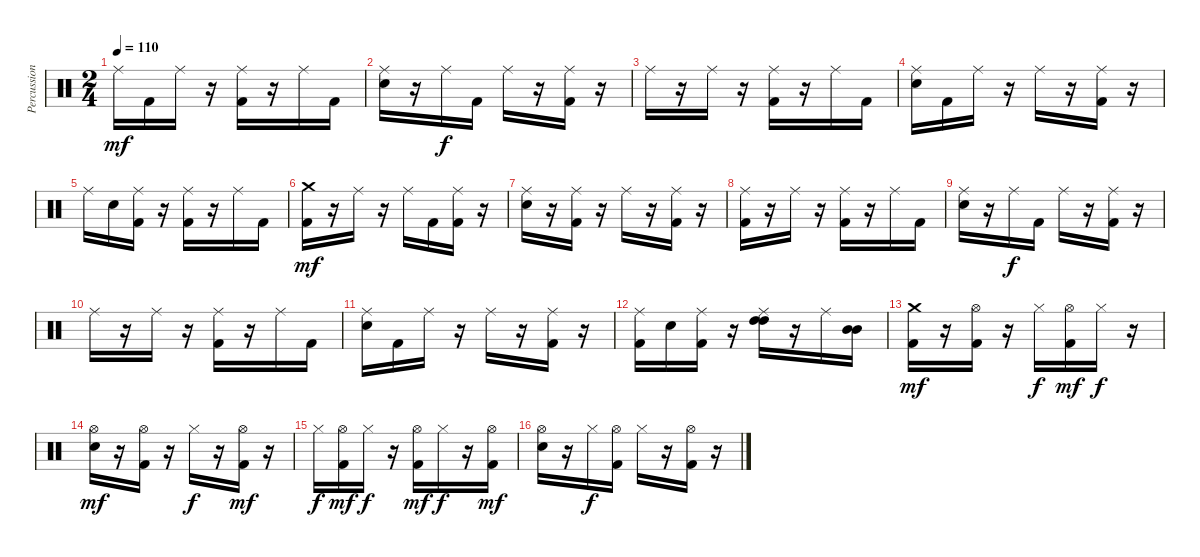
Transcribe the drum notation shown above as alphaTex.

\track ("Percussion" "Percussion") {instrument percussion}
\staff {score}
\articulation defaults
\ts (2 4)
\tempo 110
\clef neutral
\ks c "Ride (middle)".16{dy mf} "Kick (hit) 2".16 "Ride (middle)".16
r.16 ("Ride (middle)" "Kick (hit) 2").16 r.16 "Ride (middle)".16 "Kick (hit) 2".16 |
("Ride (middle)" "Snare (hit) 2").16 r.16 "Ride (middle)".16{dy f} "Kick (hit) 2".16 "Ride (middle)".16 r.16 ("Ride (middle)" "Kick (hit) 2").16 r.16 |
"Ride (middle)".16 r.16 "Ride (middle)".16 r.16 ("Ride (middle)" "Kick (hit) 2").16 r.16 "Ride (middle)".16 "Kick (hit) 2".16 |
("Ride (middle)" "Snare (hit) 2").16 "Kick (hit) 2".16 "Ride (middle)".16 r.16 "Ride (middle)".16 r.16 ("Ride (middle)" "Kick (hit) 2").16 r.16 |
"Ride (middle)".16 "Snare (hit) 2".16 ("Ride (middle)" "Kick (hit) 2").16 r.16 ("Ride (middle)" "Kick (hit) 2").16 r.16 "Ride (middle)".16 "Kick (hit) 2".16 |
("Crash medium (hit)" "Kick (hit) 2").16{dy mf} r.16 "Ride (middle)".16 r.16 "Ride (middle)".16 "Kick (hit) 2".16 ("Ride (middle)" "Kick (hit) 2").16 r.16 |
("Ride (middle)" "Snare (hit) 2").16 r.16 ("Ride (middle)" "Kick (hit) 2").16 r.16 "Ride (middle)".16 r.16 ("Ride (middle)" "Kick (hit) 2").16 r.16 |
("Ride (middle)" "Kick (hit) 2").16 r.16 "Ride (middle)".16 r.16 ("Ride (middle)" "Kick (hit) 2").16 r.16 "Ride (middle)".16 "Kick (hit) 2".16 |
("Ride (middle)" "Snare (hit) 2").16 r.16 "Ride (middle)".16{dy f} "Kick (hit) 2".16 "Ride (middle)".16 r.16 ("Ride (middle)" "Kick (hit) 2").16 r.16 |
"Ride (middle)".16 r.16 "Ride (middle)".16 r.16 ("Ride (middle)" "Kick (hit) 2").16 r.16 "Ride (middle)".16 "Kick (hit) 2".16 |
("Ride (middle)" "Snare (hit) 2").16 "Kick (hit) 2".16 "Ride (middle)".16 r.16 "Ride (middle)".16 r.16 ("Ride (middle)" "Kick (hit) 2").16 r.16 |
("Ride (middle)" "Kick (hit) 2").16 "Snare (hit) 2".16 ("Ride (middle)" "Kick (hit) 2").16 r.16 ("Ride (middle)" "High Tom (hit)" "High Tom (hit)").16 r.16 "Ride (middle)".16 ("Mid Tom (hit)" "Mid Tom (hit)").16 |
("Crash medium (hit)" "Kick (hit) 2").16{dy mf} r.16 ("Hi-Hat (open)" "Kick (hit) 2").16 r.16 "Hi-Hat (closed)".16{dy f} ("Hi-Hat (open)" "Kick (hit) 2").16{dy mf} "Hi-Hat (closed)".16{dy f} r.16 |
("Hi-Hat (open)" "Snare (hit) 2").16{dy mf} r.16 ("Hi-Hat (open)" "Kick (hit) 2").16 r.16 "Hi-Hat (closed)".16{dy f} r.16 ("Hi-Hat (open)" "Kick (hit) 2").16{dy mf} r.16 |
"Hi-Hat (closed)".16{dy f} ("Hi-Hat (open)" "Kick (hit) 2").16{dy mf} "Hi-Hat (closed)".16{dy f} r.16 ("Hi-Hat (open)" "Kick (hit) 2").16{dy mf} "Hi-Hat (closed)".16{dy f} r.16 ("Hi-Hat (open)" "Kick (hit) 2").16{dy mf} |
("Hi-Hat (open)" "Snare (hit) 2").16 r.16 "Hi-Hat (closed)".16{dy f} ("Hi-Hat (open)" "Kick (hit) 2").16 "Hi-Hat (closed)".16 r.16 ("Hi-Hat (open)" "Kick (hit) 2").16 r.16
